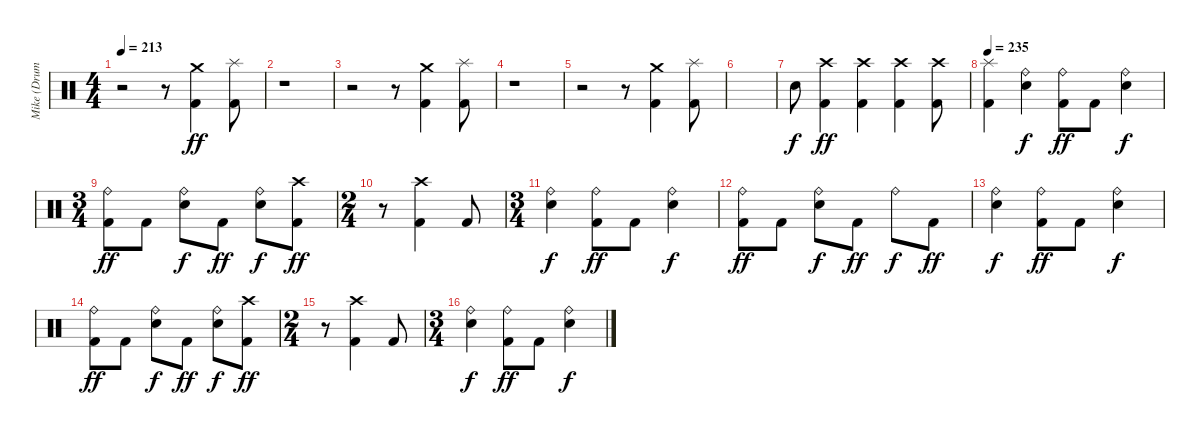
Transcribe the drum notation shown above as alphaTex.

\track ("Mike (Drums)" "Mike (Drum") {instrument percussion}
\staff {score}
\articulation defaults
\ts (4 4)
\tempo 213
\clef neutral
\ks c
r.2{dy ff} r.8 ("Crash medium (hit)" "Kick (hit) 2").4 ("Splash (hit)" "Kick (hit) 2").8 |
r.1 |
r.2 r.8 ("Crash medium (hit)" "Kick (hit) 2").4 ("Splash (hit)" "Kick (hit) 2").8 |
r.1 |
r.2 r.8 ("Crash medium (hit)" "Kick (hit) 2").4 ("Splash (hit)" "Kick (hit) 2").8 |
|
"Electric Snare (hit)".8{dy f} ("Crash high (hit)" "Kick (hit) 2").4{dy ff} ("Crash high (hit)" "Kick (hit) 2").4 ("Crash high (hit)" "Kick (hit) 2").4 ("Crash high (hit)" "Kick (hit) 2").8 |
\tempo 235
("Splash (hit)" "Kick (hit) 2").4 ("Ride (bell)" "Electric Snare (hit)").4{dy f} ("Ride (bell)" "Kick (hit) 2").8{dy ff} "Kick (hit) 2".8 ("Ride (bell)" "Electric Snare (hit)").4{dy f} |
\ts (3 4)
("Ride (bell)" "Kick (hit) 2").8{dy ff} "Kick (hit) 2".8 ("Ride (bell)" "Electric Snare (hit)").8{dy f} "Kick (hit) 2".8{dy ff} ("Ride (bell)" "Electric Snare (hit)").8{dy f} ("Crash high (hit)" "Kick (hit) 2").8{dy ff} |
\ts (2 4)
r.8 ("Crash high (hit)" "Kick (hit) 2").4 "Kick (hit) 2".8 |
\ts (3 4)
("Ride (bell)" "Electric Snare (hit)").4{dy f} ("Ride (bell)" "Kick (hit) 2").8{dy ff} "Kick (hit) 2".8 ("Ride (bell)" "Electric Snare (hit)").4{dy f} |
("Ride (bell)" "Kick (hit) 2").8{dy ff} "Kick (hit) 2".8 ("Ride (bell)" "Electric Snare (hit)").8{dy f} "Kick (hit) 2".8{dy ff} "Ride (bell)".8{dy f} "Kick (hit) 2".8{dy ff} |
("Ride (bell)" "Electric Snare (hit)").4{dy f} ("Ride (bell)" "Kick (hit) 2").8{dy ff} "Kick (hit) 2".8 ("Ride (bell)" "Electric Snare (hit)").4{dy f} |
("Ride (bell)" "Kick (hit) 2").8{dy ff} "Kick (hit) 2".8 ("Ride (bell)" "Electric Snare (hit)").8{dy f} "Kick (hit) 2".8{dy ff} ("Ride (bell)" "Electric Snare (hit)").8{dy f} ("Crash high (hit)" "Kick (hit) 2").8{dy ff} |
\ts (2 4)
r.8 ("Crash high (hit)" "Kick (hit) 2").4 "Kick (hit) 2".8 |
\ts (3 4)
("Ride (bell)" "Electric Snare (hit)").4{dy f} ("Ride (bell)" "Kick (hit) 2").8{dy ff} "Kick (hit) 2".8 ("Ride (bell)" "Electric Snare (hit)").4{dy f}
